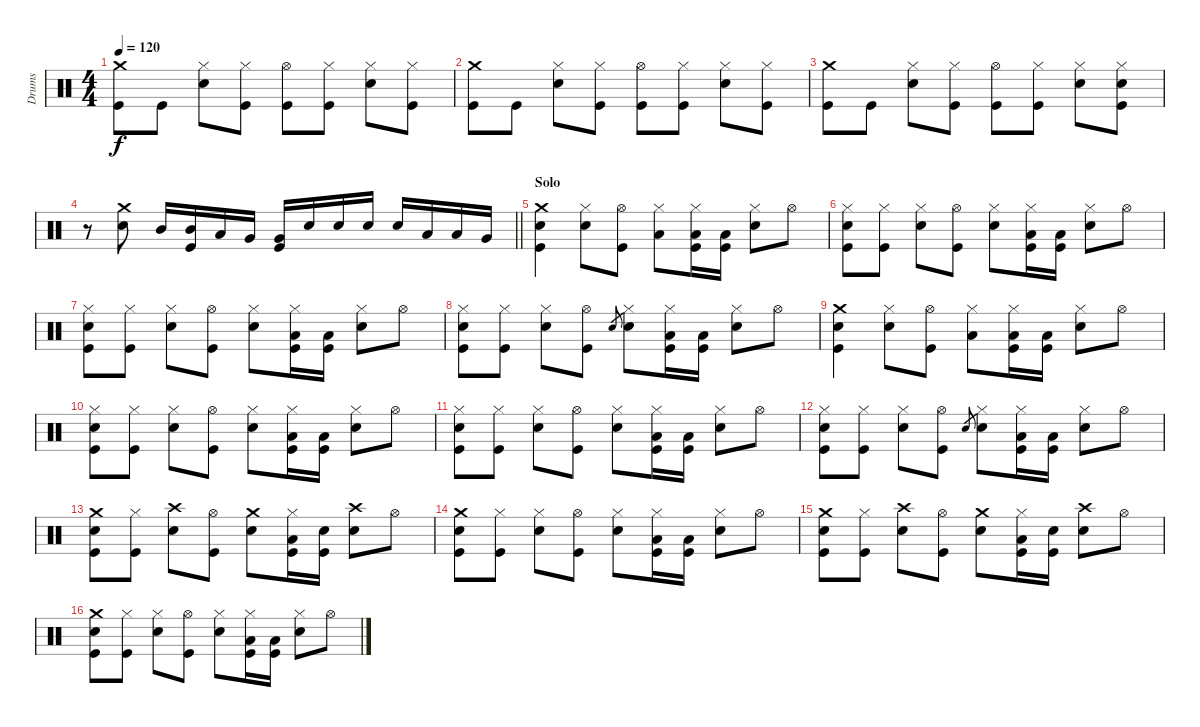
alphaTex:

\track ("Drums" "Drums") {instrument percussion}
\staff {score}
\articulation defaults
\ts (4 4)
\tempo 120
\clef neutral
\ks c
("Crash medium (hit)" "Kick (hit)").8{dy f} "Kick (hit)".8 ("Hi-Hat (closed)" "Snare (hit) 2").8 ("Hi-Hat (closed)" "Kick (hit)").8 ("Hi-Hat (open)" "Kick (hit)").8 ("Hi-Hat (closed)" "Kick (hit)").8 ("Hi-Hat (closed)" "Snare (hit) 2").8 ("Hi-Hat (closed)" "Kick (hit)").8 |
("Crash medium (hit)" "Kick (hit)").8 "Kick (hit)".8 ("Hi-Hat (closed)" "Snare (hit) 2").8 ("Hi-Hat (closed)" "Kick (hit)").8 ("Hi-Hat (open)" "Kick (hit)").8 ("Hi-Hat (closed)" "Kick (hit)").8 ("Hi-Hat (closed)" "Snare (hit) 2").8 ("Hi-Hat (closed)" "Kick (hit)").8 |
("Crash medium (hit)" "Kick (hit)").8 "Kick (hit)".8 ("Hi-Hat (closed)" "Snare (hit) 2").8 ("Hi-Hat (closed)" "Kick (hit)").8 ("Hi-Hat (open)" "Kick (hit)").8 ("Hi-Hat (closed)" "Kick (hit)").8 ("Hi-Hat (closed)" "Snare (hit) 2").8 ("Hi-Hat (closed)" "Snare (hit) 2" "Kick (hit)").8 |
\barLineRight lightlight
r.8 ("Crash medium (hit)" "Snare (hit) 2").8 "Mid Tom (hit)".16 ("Mid Tom (hit)" "Kick (hit)").16 "Low Tom (hit)".16 "Very Low Tom (hit)".16 ("Very Low Tom (hit)" "Kick (hit)").16 "Snare (hit) 2".16 "Snare (hit) 2".16 "Snare (hit) 2".16 "Snare (hit) 2".16 "Low Tom (hit)".16 "Low Tom (hit)".16 "Very Low Tom (hit)".16 |
\section ("" "Solo")
("Crash medium (hit)" "Snare (hit) 2" "Kick (hit)").4 ("Hi-Hat (closed)" "Snare (hit) 2").8 ("Hi-Hat (open)" "Kick (hit)").8 ("Hi-Hat (closed)" "Low Tom (hit)").8 ("Hi-Hat (closed)" "Low Tom (hit)" "Kick (hit)").16 ("Low Tom (hit)" "Kick (hit)").16 ("Hi-Hat (closed)" "Snare (hit) 2").8 "Hi-Hat (open)".8 |
("Hi-Hat (closed)" "Snare (hit) 2" "Kick (hit)").8 ("Hi-Hat (closed)" "Kick (hit)").8 ("Hi-Hat (closed)" "Snare (hit) 2").8 ("Hi-Hat (open)" "Kick (hit)").8 ("Hi-Hat (closed)" "Snare (hit) 2").8 ("Hi-Hat (closed)" "Low Tom (hit)" "Kick (hit)").16 ("Low Tom (hit)" "Kick (hit)").16 ("Hi-Hat (closed)" "Snare (hit) 2").8 "Hi-Hat (open)".8 |
("Hi-Hat (closed)" "Snare (hit) 2" "Kick (hit)").8 ("Hi-Hat (closed)" "Kick (hit)").8 ("Hi-Hat (closed)" "Snare (hit) 2").8 ("Hi-Hat (open)" "Kick (hit)").8 ("Hi-Hat (closed)" "Snare (hit) 2").8 ("Hi-Hat (closed)" "Low Tom (hit)" "Kick (hit)").16 ("Low Tom (hit)" "Kick (hit)").16 ("Hi-Hat (closed)" "Snare (hit) 2").8 "Hi-Hat (open)".8 |
("Hi-Hat (closed)" "Snare (hit) 2" "Kick (hit)").8 ("Hi-Hat (closed)" "Kick (hit)").8 ("Hi-Hat (closed)" "Snare (hit) 2").8 ("Hi-Hat (open)" "Kick (hit)").8 "Snare (hit) 2".8{gr} ("Hi-Hat (closed)" "Snare (hit) 2").8 ("Hi-Hat (closed)" "Low Tom (hit)" "Kick (hit)").16 ("Low Tom (hit)" "Kick (hit)").16 ("Hi-Hat (closed)" "Snare (hit) 2").8 "Hi-Hat (open)".8 |
("Crash medium (hit)" "Snare (hit) 2" "Kick (hit)").4 ("Hi-Hat (closed)" "Snare (hit) 2").8 ("Hi-Hat (open)" "Kick (hit)").8 ("Hi-Hat (closed)" "Low Tom (hit)").8 ("Hi-Hat (closed)" "Low Tom (hit)" "Kick (hit)").16 ("Low Tom (hit)" "Kick (hit)").16 ("Hi-Hat (closed)" "Snare (hit) 2").8 "Hi-Hat (open)".8 |
("Hi-Hat (closed)" "Snare (hit) 2" "Kick (hit)").8 ("Hi-Hat (closed)" "Kick (hit)").8 ("Hi-Hat (closed)" "Snare (hit) 2").8 ("Hi-Hat (open)" "Kick (hit)").8 ("Hi-Hat (closed)" "Snare (hit) 2").8 ("Hi-Hat (closed)" "Low Tom (hit)" "Kick (hit)").16 ("Low Tom (hit)" "Kick (hit)").16 ("Hi-Hat (closed)" "Snare (hit) 2").8 "Hi-Hat (open)".8 |
("Hi-Hat (closed)" "Snare (hit) 2" "Kick (hit)").8 ("Hi-Hat (closed)" "Kick (hit)").8 ("Hi-Hat (closed)" "Snare (hit) 2").8 ("Hi-Hat (open)" "Kick (hit)").8 ("Hi-Hat (closed)" "Snare (hit) 2").8 ("Hi-Hat (closed)" "Low Tom (hit)" "Kick (hit)").16 ("Low Tom (hit)" "Kick (hit)").16 ("Hi-Hat (closed)" "Snare (hit) 2").8 "Hi-Hat (open)".8 |
("Hi-Hat (closed)" "Snare (hit) 2" "Kick (hit)").8 ("Hi-Hat (closed)" "Kick (hit)").8 ("Hi-Hat (closed)" "Snare (hit) 2").8 ("Hi-Hat (open)" "Kick (hit)").8 "Snare (hit) 2".8{gr} ("Hi-Hat (closed)" "Snare (hit) 2").8 ("Hi-Hat (closed)" "Low Tom (hit)" "Kick (hit)").16 ("Low Tom (hit)" "Kick (hit)").16 ("Hi-Hat (closed)" "Snare (hit) 2").8 "Hi-Hat (open)".8 |
("Crash medium (hit)" "Snare (hit) 2" "Kick (hit)").8 ("Hi-Hat (closed)" "Kick (hit)").8 ("Crash high (hit)" "Snare (hit) 2").8 ("Hi-Hat (open)" "Kick (hit)").8 ("Crash medium (hit)" "Snare (hit) 2").8 ("Hi-Hat (closed)" "Low Tom (hit)" "Kick (hit)").16 ("Snare (hit) 2" "Kick (hit)").16 ("Crash high (hit)" "Snare (hit) 2").8 "Hi-Hat (open)".8 |
("Crash medium (hit)" "Snare (hit) 2" "Kick (hit)").8 ("Hi-Hat (closed)" "Kick (hit)").8 ("Hi-Hat (closed)" "Snare (hit) 2").8 ("Hi-Hat (open)" "Kick (hit)").8 ("Hi-Hat (closed)" "Snare (hit) 2").8 ("Hi-Hat (closed)" "Low Tom (hit)" "Kick (hit)").16 ("Low Tom (hit)" "Kick (hit)").16 ("Hi-Hat (closed)" "Snare (hit) 2").8 "Hi-Hat (open)".8 |
("Crash medium (hit)" "Snare (hit) 2" "Kick (hit)").8 ("Hi-Hat (closed)" "Kick (hit)").8 ("Crash high (hit)" "Snare (hit) 2").8 ("Hi-Hat (open)" "Kick (hit)").8 ("Crash medium (hit)" "Snare (hit) 2").8 ("Hi-Hat (closed)" "Low Tom (hit)" "Kick (hit)").16 ("Snare (hit) 2" "Kick (hit)").16 ("Crash high (hit)" "Snare (hit) 2").8 "Hi-Hat (open)".8 |
("Crash medium (hit)" "Snare (hit) 2" "Kick (hit)").8 ("Hi-Hat (closed)" "Kick (hit)").8 ("Hi-Hat (closed)" "Snare (hit) 2").8 ("Hi-Hat (open)" "Kick (hit)").8 ("Hi-Hat (closed)" "Snare (hit) 2").8 ("Hi-Hat (closed)" "Low Tom (hit)" "Kick (hit)").16 ("Low Tom (hit)" "Kick (hit)").16 ("Hi-Hat (closed)" "Snare (hit) 2").8 "Hi-Hat (open)".8
